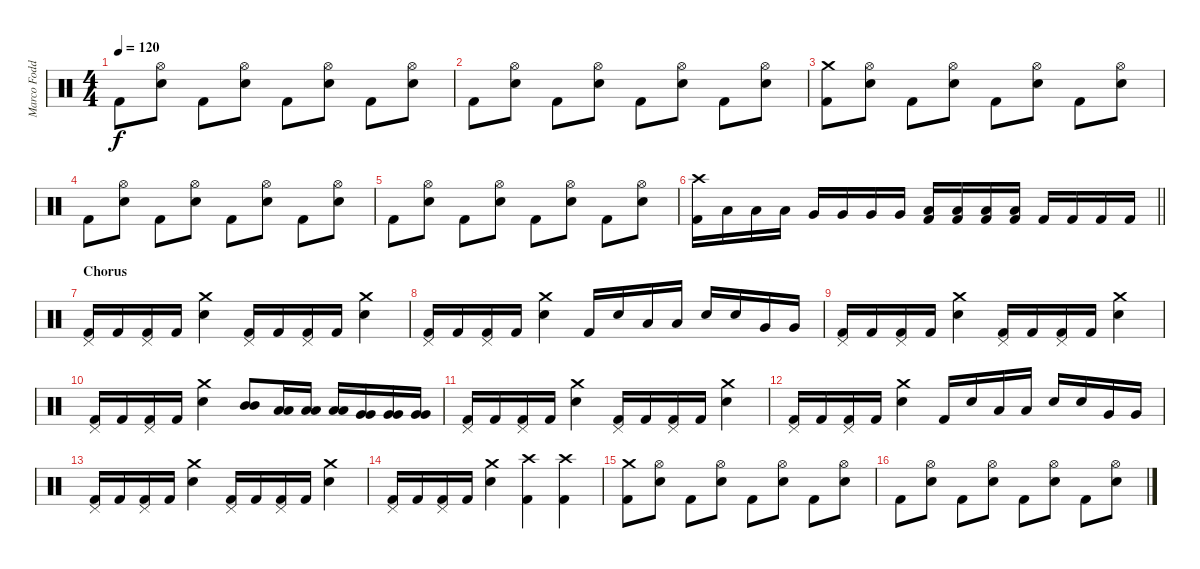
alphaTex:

\track ("Marco Foddis " "Marco Fodd") {instrument percussion}
\staff {score}
\articulation defaults
\ts (4 4)
\tempo 120
\clef neutral
\ks c "Kick (hit) 2".8{dy f}
("Hi-Hat (open)" "Electric Snare (hit)").8 "Kick (hit) 2".8 ("Hi-Hat (open)" "Electric Snare (hit)").8 "Kick (hit) 2".8 ("Hi-Hat (open)" "Electric Snare (hit)").8 "Kick (hit) 2".8 ("Hi-Hat (open)" "Electric Snare (hit)").8 |
"Kick (hit) 2".8 ("Hi-Hat (open)" "Electric Snare (hit)").8 "Kick (hit) 2".8 ("Hi-Hat (open)" "Electric Snare (hit)").8 "Kick (hit) 2".8 ("Hi-Hat (open)" "Electric Snare (hit)").8 "Kick (hit) 2".8 ("Hi-Hat (open)" "Electric Snare (hit)").8 |
("Crash medium (hit)" "Kick (hit) 2").8 ("Hi-Hat (open)" "Electric Snare (hit)").8 "Kick (hit) 2".8 ("Hi-Hat (open)" "Electric Snare (hit)").8 "Kick (hit) 2".8 ("Hi-Hat (open)" "Electric Snare (hit)").8 "Kick (hit) 2".8 ("Hi-Hat (open)" "Electric Snare (hit)").8 |
"Kick (hit) 2".8 ("Hi-Hat (open)" "Electric Snare (hit)").8 "Kick (hit) 2".8 ("Hi-Hat (open)" "Electric Snare (hit)").8 "Kick (hit) 2".8 ("Hi-Hat (open)" "Electric Snare (hit)").8 "Kick (hit) 2".8 ("Hi-Hat (open)" "Electric Snare (hit)").8 |
"Kick (hit) 2".8 ("Hi-Hat (open)" "Electric Snare (hit)").8 "Kick (hit) 2".8 ("Hi-Hat (open)" "Electric Snare (hit)").8 "Kick (hit) 2".8 ("Hi-Hat (open)" "Electric Snare (hit)").8 "Kick (hit) 2".8 ("Hi-Hat (open)" "Electric Snare (hit)").8 |
\barLineRight lightlight
("Crash high (hit)" "Kick (hit) 2").16 "Low Tom (hit)".16 "Low Tom (hit)".16 "Low Tom (hit)".16 "Very Low Tom (hit)".16 "Very Low Tom (hit)".16 "Very Low Tom (hit)".16 "Very Low Tom (hit)".16 ("Low Floor Tom (hit)" "Kick (hit) 2").16 ("Low Floor Tom (hit)" "Kick (hit) 2").16 ("Low Floor Tom (hit)" "Kick (hit) 2").16 ("Low Floor Tom (hit)" "Kick (hit) 2").16 "Kick (hit) 2".16 "Kick (hit) 2".16 "Kick (hit) 2".16 "Kick (hit) 2".16 |
\section ("" "Chorus")
("Pedal Hi-Hat (hit)" "Kick (hit) 2").16 "Kick (hit) 2".16 ("Pedal Hi-Hat (hit)" "Kick (hit) 2").16 "Kick (hit) 2".16 ("Crash medium (hit)" "Electric Snare (hit)").4 ("Pedal Hi-Hat (hit)" "Kick (hit) 2").16 "Kick (hit) 2".16 ("Pedal Hi-Hat (hit)" "Kick (hit) 2").16 "Kick (hit) 2".16 ("Crash medium (hit)" "Electric Snare (hit)").4 |
("Pedal Hi-Hat (hit)" "Kick (hit) 2").16 "Kick (hit) 2".16 ("Pedal Hi-Hat (hit)" "Kick (hit) 2").16 "Kick (hit) 2".16 ("Crash medium (hit)" "Electric Snare (hit)").4 "Kick (hit) 2".16 "Electric Snare (hit)".16 "Low Tom (hit)".16 "Low Tom (hit)".16 "Electric Snare (hit)".16 "Electric Snare (hit)".16 "Very Low Tom (hit)".16 "Very Low Tom (hit)".16 |
("Pedal Hi-Hat (hit)" "Kick (hit) 2").16 "Kick (hit) 2".16 ("Pedal Hi-Hat (hit)" "Kick (hit) 2").16 "Kick (hit) 2".16 ("Crash medium (hit)" "Electric Snare (hit)").4 ("Pedal Hi-Hat (hit)" "Kick (hit) 2").16 "Kick (hit) 2".16 ("Pedal Hi-Hat (hit)" "Kick (hit) 2").16 "Kick (hit) 2".16 ("Crash medium (hit)" "Electric Snare (hit)").4 |
("Pedal Hi-Hat (hit)" "Kick (hit) 2").16 "Kick (hit) 2".16 ("Pedal Hi-Hat (hit)" "Kick (hit) 2").16 "Kick (hit) 2".16 ("Crash medium (hit)" "Electric Snare (hit)").4 ("Mid Tom (hit)" "Mid Tom (hit)").8 ("Low Tom (hit)" "Low Tom (hit)").16 ("Low Tom (hit)" "Low Tom (hit)").16 ("Low Tom (hit)" "Low Tom (hit)").16 ("Very Low Tom (hit)" "Very Low Tom (hit)").16 ("Very Low Tom (hit)" "Very Low Tom (hit)").16 ("Very Low Tom (hit)" "Very Low Tom (hit)").16 |
("Pedal Hi-Hat (hit)" "Kick (hit) 2").16 "Kick (hit) 2".16 ("Pedal Hi-Hat (hit)" "Kick (hit) 2").16 "Kick (hit) 2".16 ("Crash medium (hit)" "Electric Snare (hit)").4 ("Pedal Hi-Hat (hit)" "Kick (hit) 2").16 "Kick (hit) 2".16 ("Pedal Hi-Hat (hit)" "Kick (hit) 2").16 "Kick (hit) 2".16 ("Crash medium (hit)" "Electric Snare (hit)").4 |
("Pedal Hi-Hat (hit)" "Kick (hit) 2").16 "Kick (hit) 2".16 ("Pedal Hi-Hat (hit)" "Kick (hit) 2").16 "Kick (hit) 2".16 ("Crash medium (hit)" "Electric Snare (hit)").4 "Kick (hit) 2".16 "Electric Snare (hit)".16 "Low Tom (hit)".16 "Low Tom (hit)".16 "Electric Snare (hit)".16 "Electric Snare (hit)".16 "Very Low Tom (hit)".16 "Very Low Tom (hit)".16 |
("Pedal Hi-Hat (hit)" "Kick (hit) 2").16 "Kick (hit) 2".16 ("Pedal Hi-Hat (hit)" "Kick (hit) 2").16 "Kick (hit) 2".16 ("Crash medium (hit)" "Electric Snare (hit)").4 ("Pedal Hi-Hat (hit)" "Kick (hit) 2").16 "Kick (hit) 2".16 ("Pedal Hi-Hat (hit)" "Kick (hit) 2").16 "Kick (hit) 2".16 ("Crash medium (hit)" "Electric Snare (hit)").4 |
("Pedal Hi-Hat (hit)" "Kick (hit) 2").16 "Kick (hit) 2".16 ("Pedal Hi-Hat (hit)" "Kick (hit) 2").16 "Kick (hit) 2".16 ("Crash medium (hit)" "Electric Snare (hit)").4 ("Crash high (hit)" "Kick (hit) 2").4 ("Crash high (hit)" "Kick (hit) 2").4 |
("Crash medium (hit)" "Kick (hit) 2").8 ("Hi-Hat (open)" "Electric Snare (hit)").8 "Kick (hit) 2".8 ("Hi-Hat (open)" "Electric Snare (hit)").8 "Kick (hit) 2".8 ("Hi-Hat (open)" "Electric Snare (hit)").8 "Kick (hit) 2".8 ("Hi-Hat (open)" "Electric Snare (hit)").8 |
"Kick (hit) 2".8 ("Hi-Hat (open)" "Electric Snare (hit)").8 "Kick (hit) 2".8 ("Hi-Hat (open)" "Electric Snare (hit)").8 "Kick (hit) 2".8 ("Hi-Hat (open)" "Electric Snare (hit)").8 "Kick (hit) 2".8 ("Hi-Hat (open)" "Electric Snare (hit)").8
